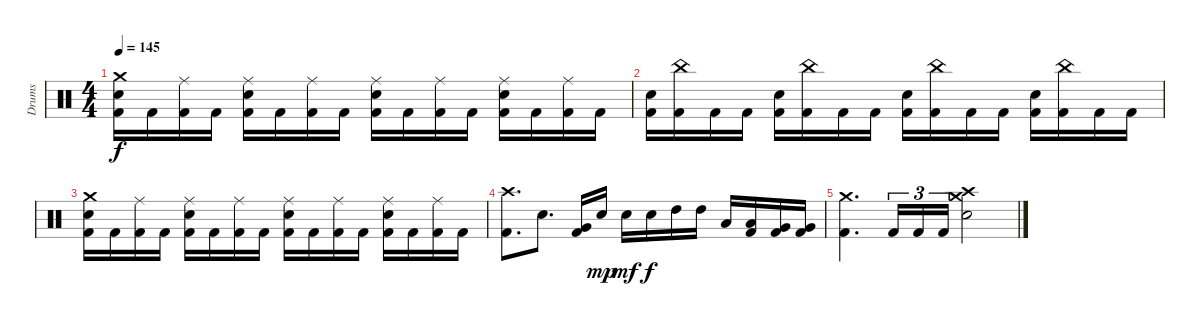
\track ("Drums" "Drums") {instrument percussion}
\staff {score}
\articulation defaults
\ts (4 4)
\tempo 145
\clef neutral
\ks c
("Crash medium (hit)" "Kick (hit) 2" "Electric Snare (hit)").16{dy f} "Kick (hit) 2".16 ("Ride (middle)" "Kick (hit) 2").16 "Kick (hit) 2".16 ("Ride (middle)" "Kick (hit) 2" "Electric Snare (hit)").16 "Kick (hit) 2".16 ("Ride (middle)" "Kick (hit) 2").16 "Kick (hit) 2".16 ("Ride (middle)" "Kick (hit) 2" "Electric Snare (hit)").16 "Kick (hit) 2".16 ("Ride (middle)" "Kick (hit) 2").16 "Kick (hit) 2".16 ("Ride (middle)" "Kick (hit) 2" "Electric Snare (hit)").16 "Kick (hit) 2".16 ("Ride (middle)" "Kick (hit) 2").16 "Kick (hit) 2".16 |
("Kick (hit) 2" "Electric Snare (hit)").16 ("China (hit)" "Kick (hit) 2").16 "Kick (hit) 2".16 "Kick (hit) 2".16 ("Kick (hit) 2" "Electric Snare (hit)").16 ("China (hit)" "Kick (hit) 2").16 "Kick (hit) 2".16 "Kick (hit) 2".16 ("Kick (hit) 2" "Electric Snare (hit)").16 ("China (hit)" "Kick (hit) 2").16 "Kick (hit) 2".16 "Kick (hit) 2".16 ("Kick (hit) 2" "Electric Snare (hit)").16 ("China (hit)" "Kick (hit) 2").16 "Kick (hit) 2".16 "Kick (hit) 2".16 |
("Crash medium (hit)" "Kick (hit) 2" "Electric Snare (hit)").16 "Kick (hit) 2".16 ("Ride (middle)" "Kick (hit) 2").16 "Kick (hit) 2".16 ("Ride (middle)" "Kick (hit) 2" "Electric Snare (hit)").16 "Kick (hit) 2".16 ("Ride (middle)" "Kick (hit) 2").16 "Kick (hit) 2".16 ("Ride (middle)" "Kick (hit) 2" "Electric Snare (hit)").16 "Kick (hit) 2".16 ("Ride (middle)" "Kick (hit) 2").16 "Kick (hit) 2".16 ("Ride (middle)" "Kick (hit) 2" "Electric Snare (hit)").16 "Kick (hit) 2".16 ("Ride (middle)" "Kick (hit) 2").16 "Kick (hit) 2".16 |
("Crash high (hit)" "Kick (hit) 2").8{d} "Electric Snare (hit)".8{d} ("Very Low Tom (hit)" "Kick (hit) 2").16 "Electric Snare (hit)".16{dy mp} "Electric Snare (hit)".16{dy mf} "Electric Snare (hit)".16{dy f} "High Tom (hit)".16 "High Tom (hit)".16 "Low Tom (hit)".16 ("Low Tom (hit)" "Kick (hit) 2").16 ("Very Low Tom (hit)" "Kick (hit) 2").16 ("Very Low Tom (hit)" "Kick (hit) 2").16 |
("Crash medium (hit)" "Kick (hit) 2").4{d} "Kick (hit) 2".16{tu (3 2)} "Kick (hit) 2".16{tu (3 2)} "Kick (hit) 2".16{tu (3 2)} ("Crash high (hit)" "Crash medium (hit)" "Electric Snare (hit)").2
